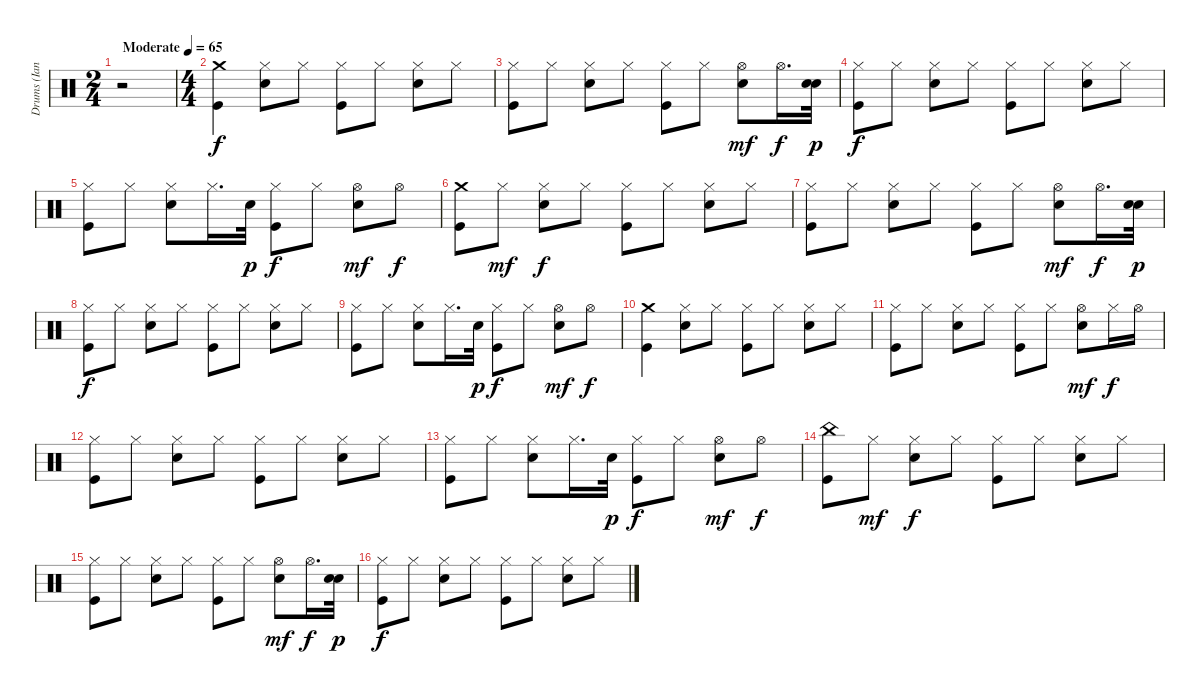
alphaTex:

\track ("Drums (Ian Paice)" "Drums (Ian") {instrument percussion}
\staff {score}
\articulation defaults
\ts (2 4)
\tempo (65 "Moderate")
\clef neutral
\ks c
r.2{dy f} |
\ts (4 4)
("Crash medium (hit)" "Kick (hit)").4 ("Hi-Hat (closed)" "Electric Snare (hit)").8 "Hi-Hat (closed)".8 ("Hi-Hat (closed)" "Kick (hit)").8 "Hi-Hat (closed)".8 ("Hi-Hat (closed)" "Electric Snare (hit)").8 "Hi-Hat (closed)".8 |
("Hi-Hat (closed)" "Kick (hit)").8 "Hi-Hat (closed)".8 ("Hi-Hat (closed)" "Electric Snare (hit)").8 "Hi-Hat (closed)".8 ("Hi-Hat (closed)" "Kick (hit)").8 "Hi-Hat (closed)".8 ("Hi-Hat (open)" "Electric Snare (hit)").8{dy mf} "Hi-Hat (open)".16{d dy f} ("Electric Snare (hit)" "Electric Snare (hit)").32{dy p} |
("Hi-Hat (closed)" "Kick (hit)").8{dy f} "Hi-Hat (closed)".8 ("Hi-Hat (closed)" "Electric Snare (hit)").8 "Hi-Hat (closed)".8 ("Hi-Hat (closed)" "Kick (hit)").8 "Hi-Hat (closed)".8 ("Hi-Hat (closed)" "Electric Snare (hit)").8 "Hi-Hat (closed)".8 |
("Hi-Hat (closed)" "Kick (hit)").8 "Hi-Hat (closed)".8 ("Hi-Hat (closed)" "Electric Snare (hit)").8 "Hi-Hat (closed)".16{d} "Electric Snare (hit)".32{dy p} ("Hi-Hat (closed)" "Kick (hit)").8{dy f} "Hi-Hat (closed)".8 ("Hi-Hat (open)" "Electric Snare (hit)").8{dy mf} "Hi-Hat (open)".8{dy f} |
("Crash medium (hit)" "Kick (hit)").8 "Hi-Hat (closed)".8{dy mf} ("Hi-Hat (closed)" "Electric Snare (hit)").8{dy f} "Hi-Hat (closed)".8 ("Hi-Hat (closed)" "Kick (hit)").8 "Hi-Hat (closed)".8 ("Hi-Hat (closed)" "Electric Snare (hit)").8 "Hi-Hat (closed)".8 |
("Hi-Hat (closed)" "Kick (hit)").8 "Hi-Hat (closed)".8 ("Hi-Hat (closed)" "Electric Snare (hit)").8 "Hi-Hat (closed)".8 ("Hi-Hat (closed)" "Kick (hit)").8 "Hi-Hat (closed)".8 ("Hi-Hat (open)" "Electric Snare (hit)").8{dy mf} "Hi-Hat (open)".16{d dy f} ("Electric Snare (hit)" "Electric Snare (hit)").32{dy p} |
("Hi-Hat (closed)" "Kick (hit)").8{dy f} "Hi-Hat (closed)".8 ("Hi-Hat (closed)" "Electric Snare (hit)").8 "Hi-Hat (closed)".8 ("Hi-Hat (closed)" "Kick (hit)").8 "Hi-Hat (closed)".8 ("Hi-Hat (closed)" "Electric Snare (hit)").8 "Hi-Hat (closed)".8 |
("Hi-Hat (closed)" "Kick (hit)").8 "Hi-Hat (closed)".8 ("Hi-Hat (closed)" "Electric Snare (hit)").8 "Hi-Hat (closed)".16{d} "Electric Snare (hit)".32{dy p} ("Hi-Hat (closed)" "Kick (hit)").8{dy f} "Hi-Hat (closed)".8 ("Hi-Hat (open)" "Electric Snare (hit)").8{dy mf} "Hi-Hat (open)".8{dy f} |
("Crash medium (hit)" "Kick (hit)").4 ("Hi-Hat (closed)" "Electric Snare (hit)").8 "Hi-Hat (closed)".8 ("Hi-Hat (closed)" "Kick (hit)").8 "Hi-Hat (closed)".8 ("Hi-Hat (closed)" "Electric Snare (hit)").8 "Hi-Hat (closed)".8 |
("Hi-Hat (closed)" "Kick (hit)").8 "Hi-Hat (closed)".8 ("Hi-Hat (closed)" "Electric Snare (hit)").8 "Hi-Hat (closed)".8 ("Hi-Hat (closed)" "Kick (hit)").8 "Hi-Hat (closed)".8 ("Hi-Hat (open)" "Electric Snare (hit)").8{dy mf} "Hi-Hat (closed)".16{dy f} "Hi-Hat (open)".16 |
("Hi-Hat (closed)" "Kick (hit)").8 "Hi-Hat (closed)".8 ("Hi-Hat (closed)" "Electric Snare (hit)").8 "Hi-Hat (closed)".8 ("Hi-Hat (closed)" "Kick (hit)").8 "Hi-Hat (closed)".8 ("Hi-Hat (closed)" "Electric Snare (hit)").8 "Hi-Hat (closed)".8 |
("Hi-Hat (closed)" "Kick (hit)").8 "Hi-Hat (closed)".8 ("Hi-Hat (closed)" "Electric Snare (hit)").8 "Hi-Hat (closed)".16{d} "Electric Snare (hit)".32{dy p} ("Hi-Hat (closed)" "Kick (hit)").8{dy f} "Hi-Hat (closed)".8 ("Hi-Hat (open)" "Electric Snare (hit)").8{dy mf} "Hi-Hat (open)".8{dy f} |
("China (hit)" "Kick (hit)").8 "Hi-Hat (closed)".8{dy mf} ("Hi-Hat (closed)" "Electric Snare (hit)").8{dy f} "Hi-Hat (closed)".8 ("Hi-Hat (closed)" "Kick (hit)").8 "Hi-Hat (closed)".8 ("Hi-Hat (closed)" "Electric Snare (hit)").8 "Hi-Hat (closed)".8 |
("Hi-Hat (closed)" "Kick (hit)").8 "Hi-Hat (closed)".8 ("Hi-Hat (closed)" "Electric Snare (hit)").8 "Hi-Hat (closed)".8 ("Hi-Hat (closed)" "Kick (hit)").8 "Hi-Hat (closed)".8 ("Hi-Hat (open)" "Electric Snare (hit)").8{dy mf} "Hi-Hat (open)".16{d dy f} ("Electric Snare (hit)" "Electric Snare (hit)").32{dy p} |
("Hi-Hat (closed)" "Kick (hit)").8{dy f} "Hi-Hat (closed)".8 ("Hi-Hat (closed)" "Electric Snare (hit)").8 "Hi-Hat (closed)".8 ("Hi-Hat (closed)" "Kick (hit)").8 "Hi-Hat (closed)".8 ("Hi-Hat (closed)" "Electric Snare (hit)").8 "Hi-Hat (closed)".8
